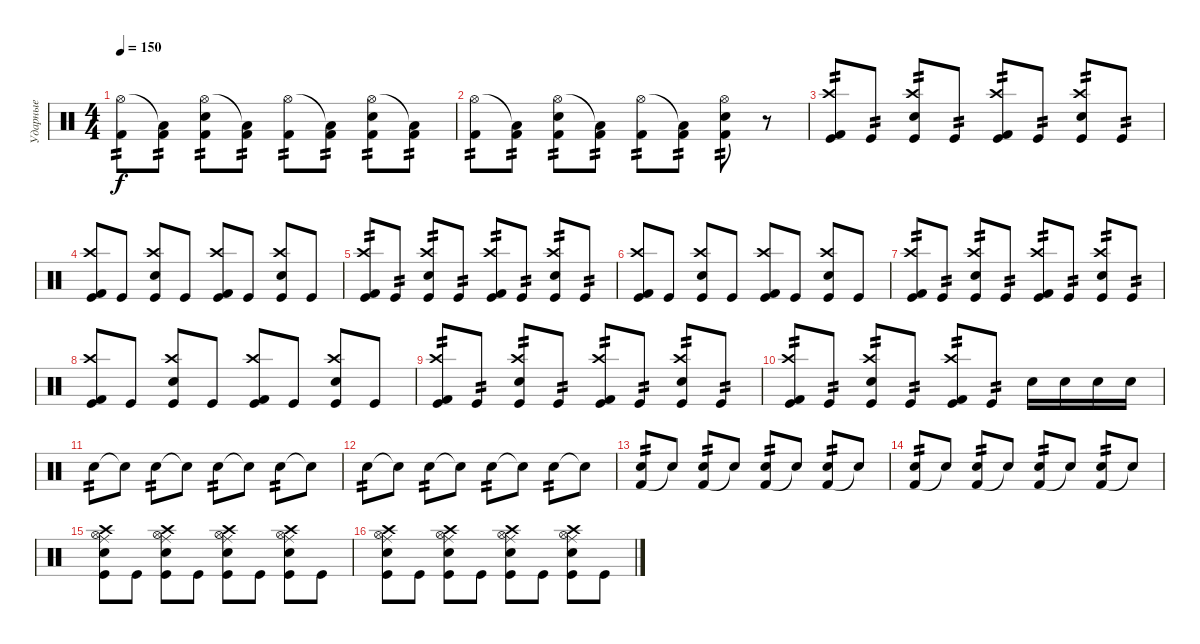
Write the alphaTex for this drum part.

\track ("Ударные" "Ударные") {instrument percussion}
\staff {score}
\articulation defaults
\ts (4 4)
\tempo 150
\clef neutral
\ks c
("Hi-Hat (open)" "Kick (hit) 2").8{tp 2 dy f} ("Low Tom (hit)"{t} "Kick (hit) 2").8{tp 2} ("Hi-Hat (open)" "Electric Snare (hit)" "Kick (hit) 2").8{tp 2} ("Low Tom (hit)"{t} "Kick (hit) 2").8{tp 2} ("Hi-Hat (open)" "Kick (hit) 2").8{tp 2} ("Low Tom (hit)"{t} "Kick (hit) 2").8{tp 2} ("Hi-Hat (open)" "Electric Snare (hit)" "Kick (hit) 2").8{tp 2} ("Low Tom (hit)"{t} "Kick (hit) 2").8{tp 2} |
("Hi-Hat (open)" "Kick (hit) 2").8{tp 2} ("Low Tom (hit)"{t} "Kick (hit) 2").8{tp 2} ("Hi-Hat (open)" "Electric Snare (hit)" "Kick (hit) 2").8{tp 2} ("Low Tom (hit)"{t} "Kick (hit) 2").8{tp 2} ("Hi-Hat (open)" "Kick (hit) 2").8{tp 2} ("Low Tom (hit)"{t} "Kick (hit) 2").8{tp 2} ("Hi-Hat (open)" "Electric Snare (hit)" "Kick (hit) 2").8{tp 2} r.8 |
("Crash high (hit)" "Kick (hit) 2" "Kick (hit)").8{tp 2} "Kick (hit)".8{tp 2} ("Crash high (hit)" "Electric Snare (hit)" "Kick (hit)").8{tp 2} "Kick (hit)".8{tp 2} ("Crash high (hit)" "Kick (hit) 2" "Kick (hit)").8{tp 2} "Kick (hit)".8{tp 2} ("Crash high (hit)" "Electric Snare (hit)" "Kick (hit)").8{tp 2} "Kick (hit)".8{tp 2} |
("Crash high (hit)" "Kick (hit) 2" "Kick (hit)").8 "Kick (hit)".8 ("Crash high (hit)" "Electric Snare (hit)" "Kick (hit)").8 "Kick (hit)".8 ("Crash high (hit)" "Kick (hit) 2" "Kick (hit)").8 "Kick (hit)".8 ("Crash high (hit)" "Electric Snare (hit)" "Kick (hit)").8 "Kick (hit)".8 |
("Crash high (hit)" "Kick (hit) 2" "Kick (hit)").8{tp 2} "Kick (hit)".8{tp 2} ("Crash high (hit)" "Electric Snare (hit)" "Kick (hit)").8{tp 2} "Kick (hit)".8{tp 2} ("Crash high (hit)" "Kick (hit) 2" "Kick (hit)").8{tp 2} "Kick (hit)".8{tp 2} ("Crash high (hit)" "Electric Snare (hit)" "Kick (hit)").8{tp 2} "Kick (hit)".8{tp 2} |
("Crash high (hit)" "Kick (hit) 2" "Kick (hit)").8 "Kick (hit)".8 ("Crash high (hit)" "Electric Snare (hit)" "Kick (hit)").8 "Kick (hit)".8 ("Crash high (hit)" "Kick (hit) 2" "Kick (hit)").8 "Kick (hit)".8 ("Crash high (hit)" "Electric Snare (hit)" "Kick (hit)").8 "Kick (hit)".8 |
("Crash high (hit)" "Kick (hit) 2" "Kick (hit)").8{tp 2} "Kick (hit)".8{tp 2} ("Crash high (hit)" "Electric Snare (hit)" "Kick (hit)").8{tp 2} "Kick (hit)".8{tp 2} ("Crash high (hit)" "Kick (hit) 2" "Kick (hit)").8{tp 2} "Kick (hit)".8{tp 2} ("Crash high (hit)" "Electric Snare (hit)" "Kick (hit)").8{tp 2} "Kick (hit)".8{tp 2} |
("Crash high (hit)" "Kick (hit) 2" "Kick (hit)").8 "Kick (hit)".8 ("Crash high (hit)" "Electric Snare (hit)" "Kick (hit)").8 "Kick (hit)".8 ("Crash high (hit)" "Kick (hit) 2" "Kick (hit)").8 "Kick (hit)".8 ("Crash high (hit)" "Electric Snare (hit)" "Kick (hit)").8 "Kick (hit)".8 |
("Crash high (hit)" "Kick (hit) 2" "Kick (hit)").8{tp 2} "Kick (hit)".8{tp 2} ("Crash high (hit)" "Electric Snare (hit)" "Kick (hit)").8{tp 2} "Kick (hit)".8{tp 2} ("Crash high (hit)" "Kick (hit) 2" "Kick (hit)").8{tp 2} "Kick (hit)".8{tp 2} ("Crash high (hit)" "Electric Snare (hit)" "Kick (hit)").8{tp 2} "Kick (hit)".8{tp 2} |
("Crash high (hit)" "Kick (hit) 2" "Kick (hit)").8{tp 2} "Kick (hit)".8{tp 2} ("Crash high (hit)" "Electric Snare (hit)" "Kick (hit)").8{tp 2} "Kick (hit)".8{tp 2} ("Crash high (hit)" "Kick (hit) 2" "Kick (hit)").8{tp 2} "Kick (hit)".8{tp 2} "Snare (hit) 2".16 "Snare (hit) 2".16 "Snare (hit) 2".16 "Snare (hit) 2".16 |
"Snare (hit) 2".8{tp 2} "Snare (hit)"{t}.8 "Snare (hit) 2".8{tp 2} "Snare (hit)"{t}.8 "Snare (hit) 2".8{tp 2} "Snare (hit)"{t}.8 "Snare (hit) 2".8{tp 2} "Snare (hit)"{t}.8 |
"Snare (hit) 2".8{tp 2} "Snare (hit)"{t}.8 "Snare (hit) 2".8{tp 2} "Snare (hit)"{t}.8 "Snare (hit) 2".8{tp 2} "Snare (hit)"{t}.8 "Snare (hit) 2".8{tp 2} "Snare (hit)"{t}.8 |
("Kick (hit) 2" "Snare (hit) 2").8{tp 2} "Snare (hit)"{t}.8 ("Kick (hit) 2" "Snare (hit) 2").8{tp 2} "Snare (hit)"{t}.8 ("Kick (hit) 2" "Snare (hit) 2").8{tp 2} "Snare (hit)"{t}.8 ("Kick (hit) 2" "Snare (hit) 2").8{tp 2} "Snare (hit)"{t}.8 |
("Kick (hit) 2" "Snare (hit) 2").8{tp 2} "Snare (hit)"{t}.8 ("Kick (hit) 2" "Snare (hit) 2").8{tp 2} "Snare (hit)"{t}.8 ("Kick (hit) 2" "Snare (hit) 2").8{tp 2} "Snare (hit)"{t}.8 ("Kick (hit) 2" "Snare (hit) 2").8{tp 2} "Snare (hit)"{t}.8 |
("Crash high (hit)" "Ride (middle)" "Hi-Hat (open)" "Kick (hit)" "Snare (hit) 2").8 "Kick (hit)".8 ("Crash high (hit)" "Ride (middle)" "Hi-Hat (open)" "Kick (hit)" "Snare (hit) 2").8 "Kick (hit)".8 ("Crash high (hit)" "Ride (middle)" "Hi-Hat (open)" "Kick (hit)" "Snare (hit) 2").8 "Kick (hit)".8 ("Crash high (hit)" "Ride (middle)" "Hi-Hat (open)" "Kick (hit)" "Snare (hit) 2").8 "Kick (hit)".8 |
("Crash high (hit)" "Ride (middle)" "Hi-Hat (open)" "Kick (hit)" "Snare (hit) 2").8 "Kick (hit)".8 ("Crash high (hit)" "Ride (middle)" "Hi-Hat (open)" "Kick (hit)" "Snare (hit) 2").8 "Kick (hit)".8 ("Crash high (hit)" "Ride (middle)" "Hi-Hat (open)" "Kick (hit)" "Snare (hit) 2").8 "Kick (hit)".8 ("Crash high (hit)" "Ride (middle)" "Hi-Hat (open)" "Kick (hit)" "Snare (hit) 2").8 "Kick (hit)".8
